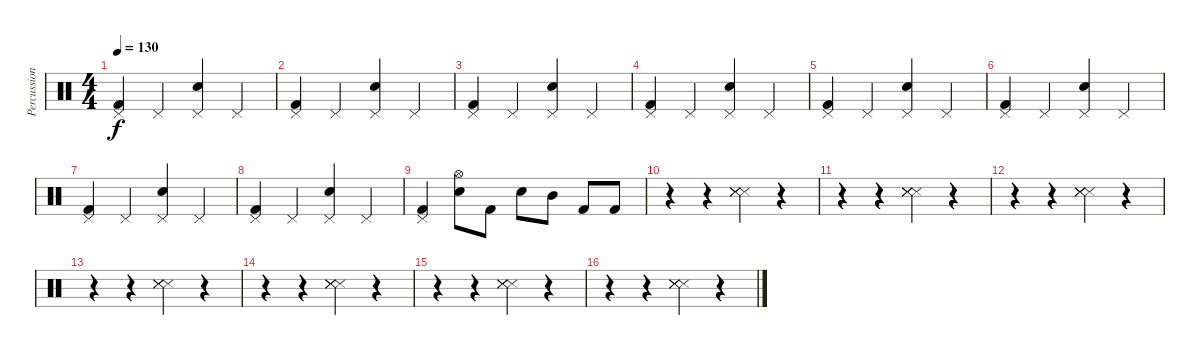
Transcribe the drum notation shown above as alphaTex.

\track ("Percussion 3" "Percussion") {instrument percussion}
\staff {score}
\articulation defaults
\ts (4 4)
\tempo 130
\clef neutral
\ks c
("Pedal Hi-Hat (hit)" "Kick (hit) 2").4{dy f} "Pedal Hi-Hat (hit)".4 ("Pedal Hi-Hat (hit)" "Snare (hit) 2").4 "Pedal Hi-Hat (hit)".4 |
("Pedal Hi-Hat (hit)" "Kick (hit) 2").4 "Pedal Hi-Hat (hit)".4 ("Pedal Hi-Hat (hit)" "Snare (hit) 2").4 "Pedal Hi-Hat (hit)".4 |
("Pedal Hi-Hat (hit)" "Kick (hit) 2").4 "Pedal Hi-Hat (hit)".4 ("Pedal Hi-Hat (hit)" "Snare (hit) 2").4 "Pedal Hi-Hat (hit)".4 |
("Pedal Hi-Hat (hit)" "Kick (hit) 2").4 "Pedal Hi-Hat (hit)".4 ("Pedal Hi-Hat (hit)" "Snare (hit) 2").4 "Pedal Hi-Hat (hit)".4 |
("Pedal Hi-Hat (hit)" "Kick (hit) 2").4 "Pedal Hi-Hat (hit)".4 ("Pedal Hi-Hat (hit)" "Snare (hit) 2").4 "Pedal Hi-Hat (hit)".4 |
("Pedal Hi-Hat (hit)" "Kick (hit) 2").4 "Pedal Hi-Hat (hit)".4 ("Pedal Hi-Hat (hit)" "Snare (hit) 2").4 "Pedal Hi-Hat (hit)".4 |
("Pedal Hi-Hat (hit)" "Kick (hit) 2").4 "Pedal Hi-Hat (hit)".4 ("Pedal Hi-Hat (hit)" "Snare (hit) 2").4 "Pedal Hi-Hat (hit)".4 |
("Pedal Hi-Hat (hit)" "Kick (hit) 2").4 "Pedal Hi-Hat (hit)".4 ("Pedal Hi-Hat (hit)" "Snare (hit) 2").4 "Pedal Hi-Hat (hit)".4 |
("Pedal Hi-Hat (hit)" "Kick (hit) 2").4 ("Snare (hit) 2" "Hi-Hat (open)").8 "Kick (hit) 2".8 "Snare (hit) 2".8 "Mid Tom (hit)".8 "Kick (hit) 2".8 "Kick (hit) 2".8 |
r.4 r.4 ("Snare (side stick) 3" "Snare (side stick) 3" "Snare (side stick) 3" "Snare (side stick) 3").4 r.4 |
r.4 r.4 ("Snare (side stick) 3" "Snare (side stick) 3" "Snare (side stick) 3" "Snare (side stick) 3").4 r.4 |
r.4 r.4 ("Snare (side stick) 3" "Snare (side stick) 3" "Snare (side stick) 3" "Snare (side stick) 3").4 r.4 |
r.4 r.4 ("Snare (side stick) 3" "Snare (side stick) 3" "Snare (side stick) 3" "Snare (side stick) 3").4 r.4 |
r.4 r.4 ("Snare (side stick) 3" "Snare (side stick) 3" "Snare (side stick) 3" "Snare (side stick) 3").4 r.4 |
r.4 r.4 ("Snare (side stick) 3" "Snare (side stick) 3" "Snare (side stick) 3" "Snare (side stick) 3").4 r.4 |
r.4 r.4 ("Snare (side stick) 3" "Snare (side stick) 3" "Snare (side stick) 3" "Snare (side stick) 3").4 r.4
